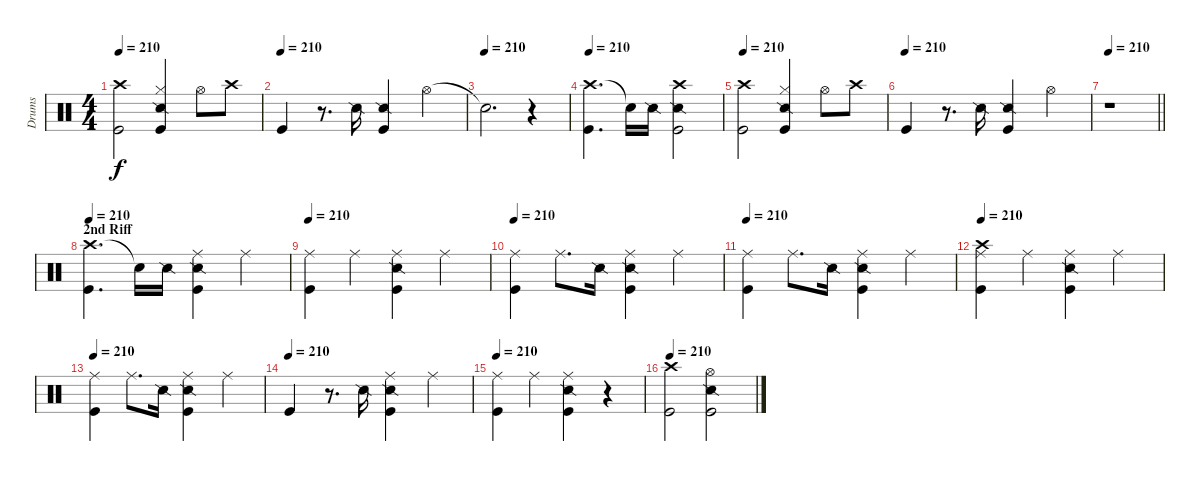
\track ("Drums" "Drums") {instrument percussion}
\staff {score}
\articulation defaults
\ts (4 4)
\tempo 210
\clef neutral
\ks c
("Crash high (hit)" "Kick (hit)").2{dy f} ("Hi-Hat (closed)" "Snare (side stick) 2" "Kick (hit)").4 "Hi-Hat (open)".8 "Crash high (hit)".8 |
\tempo (210)
"Kick (hit)".4 r.8{d} "Snare (side stick) 2".16 ("Snare (side stick) 2" "Kick (hit)").4 "Hi-Hat (open)".4 |
\tempo (210)
"Snare (hit)"{t}.2{d} r.4 |
\tempo 210
("Crash high (hit)" "Kick (hit)").4{d} "Snare (hit)"{t}.16 "Snare (side stick) 2".16 ("Crash high (hit)" "Snare (side stick) 2" "Kick (hit)").2 |
\tempo 210
("Crash high (hit)" "Kick (hit)").2 ("Hi-Hat (closed)" "Snare (side stick) 2" "Kick (hit)").4 "Hi-Hat (open)".8 "Crash high (hit)".8 |
\tempo (210)
"Kick (hit)".4 r.8{d} "Snare (side stick) 2".16 ("Snare (side stick) 2" "Kick (hit)").4 "Hi-Hat (open)".4 |
\tempo 210
\barLineRight lightlight
r.1 |
\section ("" "2nd Riff")
\tempo 210
("Crash high (hit)" "Kick (hit)").4{d} "Snare (hit)"{t}.16 "Snare (side stick) 2".16 ("Ride (middle)" "Snare (side stick) 2" "Kick (hit)").4 "Ride (middle)".4 |
\tempo 210
("Ride (middle)" "Kick (hit)").4 "Ride (middle)".4 ("Ride (middle)" "Snare (side stick) 2" "Kick (hit)").4 "Ride (middle)".4 |
\tempo 210
("Ride (middle)" "Kick (hit)").4 "Ride (middle)".8{d} "Snare (side stick) 2".16 ("Ride (middle)" "Snare (side stick) 2" "Kick (hit)").4 "Ride (middle)".4 |
\tempo 210
("Ride (middle)" "Kick (hit)").4 "Ride (middle)".8{d} "Snare (side stick) 2".16 ("Ride (middle)" "Snare (side stick) 2" "Kick (hit)").4 "Ride (middle)".4 |
\tempo 210
("Ride (middle)" "Crash high (hit)" "Kick (hit)").4 "Ride (middle)".4 ("Ride (middle)" "Snare (side stick) 2" "Kick (hit)").4 "Ride (middle)".4 |
\tempo 210
("Ride (middle)" "Kick (hit)").4 "Ride (middle)".8{d} "Snare (side stick) 2".16 ("Ride (middle)" "Snare (side stick) 2" "Kick (hit)").4 "Ride (middle)".4 |
\tempo (210)
"Kick (hit)".4 r.8{d} "Snare (side stick) 2".16 ("Ride (middle)" "Snare (side stick) 2" "Kick (hit)").4 "Ride (middle)".4 |
\tempo 210
("Ride (middle)" "Kick (hit)").4 "Ride (middle)".4 ("Ride (middle)" "Snare (side stick) 2" "Kick (hit)").4 r.4 |
\tempo 210
("Crash high (hit)" "Kick (hit)").2 ("Hi-Hat (open)" "Snare (side stick) 2" "Kick (hit)").2
